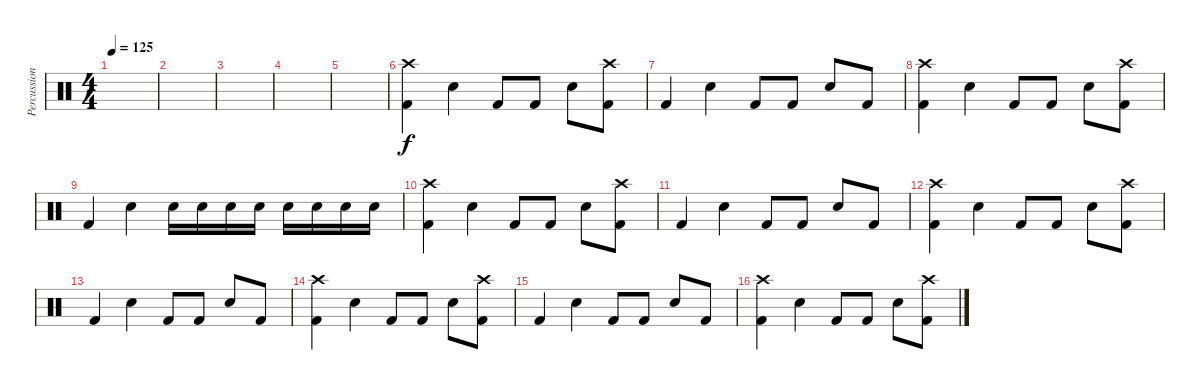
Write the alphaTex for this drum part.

\track ("Percussion" "Percussion") {instrument percussion}
\staff {score}
\articulation defaults
\ts (4 4)
\tempo 125
\clef neutral
\ks c
|
|
|
|
|
("Crash high (hit)" "Kick (hit) 2").4 "Snare (hit) 2".4 "Kick (hit) 2".8 "Kick (hit) 2".8 "Snare (hit) 2".8 ("Crash high (hit)" "Kick (hit) 2").8 |
"Kick (hit) 2".4 "Snare (hit) 2".4 "Kick (hit) 2".8 "Kick (hit) 2".8 "Snare (hit) 2".8 "Kick (hit) 2".8 |
("Crash high (hit)" "Kick (hit) 2").4 "Snare (hit) 2".4 "Kick (hit) 2".8 "Kick (hit) 2".8 "Snare (hit) 2".8 ("Crash high (hit)" "Kick (hit) 2").8 |
"Kick (hit) 2".4 "Snare (hit) 2".4 "Snare (hit) 2".16 "Snare (hit) 2".16 "Snare (hit) 2".16 "Snare (hit) 2".16 "Snare (hit) 2".16 "Snare (hit) 2".16 "Snare (hit) 2".16 "Snare (hit) 2".16 |
("Crash high (hit)" "Kick (hit) 2").4 "Snare (hit) 2".4 "Kick (hit) 2".8 "Kick (hit) 2".8 "Snare (hit) 2".8 ("Crash high (hit)" "Kick (hit) 2").8 |
"Kick (hit) 2".4 "Snare (hit) 2".4 "Kick (hit) 2".8 "Kick (hit) 2".8 "Snare (hit) 2".8 "Kick (hit) 2".8 |
("Crash high (hit)" "Kick (hit) 2").4 "Snare (hit) 2".4 "Kick (hit) 2".8 "Kick (hit) 2".8 "Snare (hit) 2".8 ("Crash high (hit)" "Kick (hit) 2").8 |
"Kick (hit) 2".4 "Snare (hit) 2".4 "Kick (hit) 2".8 "Kick (hit) 2".8 "Snare (hit) 2".8 "Kick (hit) 2".8 |
("Crash high (hit)" "Kick (hit) 2").4 "Snare (hit) 2".4 "Kick (hit) 2".8 "Kick (hit) 2".8 "Snare (hit) 2".8 ("Crash high (hit)" "Kick (hit) 2").8 |
"Kick (hit) 2".4 "Snare (hit) 2".4 "Kick (hit) 2".8 "Kick (hit) 2".8 "Snare (hit) 2".8 "Kick (hit) 2".8 |
("Crash high (hit)" "Kick (hit) 2").4 "Snare (hit) 2".4 "Kick (hit) 2".8 "Kick (hit) 2".8 "Snare (hit) 2".8 ("Crash high (hit)" "Kick (hit) 2").8
